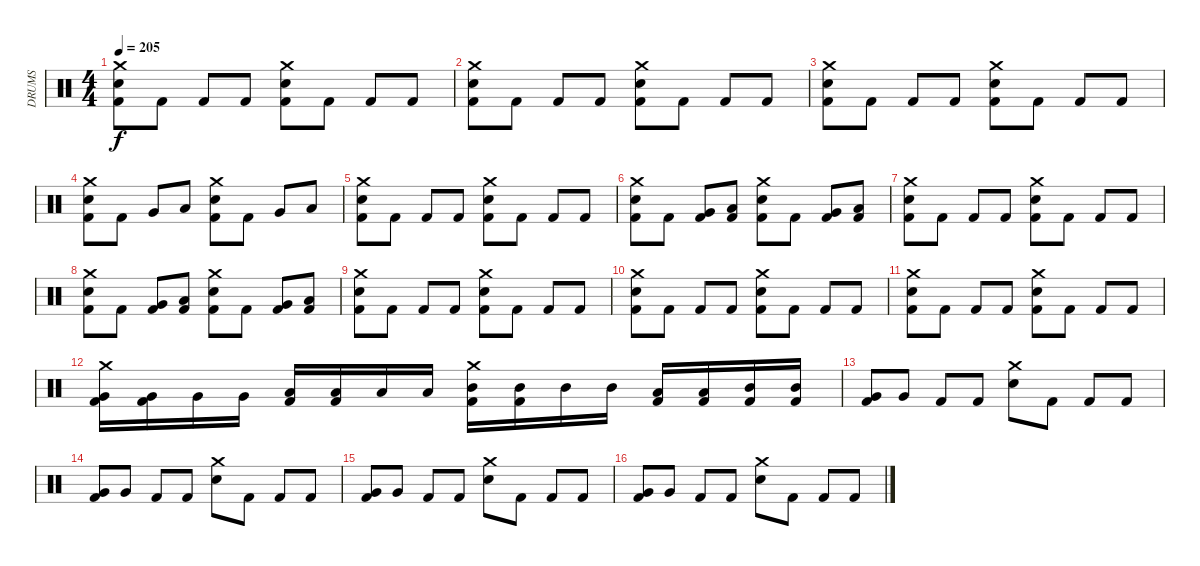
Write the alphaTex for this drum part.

\track ("DRUMS" "DRUMS") {instrument percussion}
\staff {score}
\articulation defaults
\ts (4 4)
\tempo 205
\clef neutral
\ks c
("Crash medium (hit)" "Snare (hit) 2" "Kick (hit) 2").8{dy f} "Kick (hit) 2".8 "Kick (hit) 2".8 "Kick (hit) 2".8 ("Crash medium (hit)" "Snare (hit) 2" "Kick (hit) 2").8 "Kick (hit) 2".8 "Kick (hit) 2".8 "Kick (hit) 2".8 |
("Crash medium (hit)" "Snare (hit) 2" "Kick (hit) 2").8 "Kick (hit) 2".8 "Kick (hit) 2".8 "Kick (hit) 2".8 ("Crash medium (hit)" "Snare (hit) 2" "Kick (hit) 2").8 "Kick (hit) 2".8 "Kick (hit) 2".8 "Kick (hit) 2".8 |
("Crash medium (hit)" "Snare (hit) 2" "Kick (hit) 2").8 "Kick (hit) 2".8 "Kick (hit) 2".8 "Kick (hit) 2".8 ("Crash medium (hit)" "Snare (hit) 2" "Kick (hit) 2").8 "Kick (hit) 2".8 "Kick (hit) 2".8 "Kick (hit) 2".8 |
("Crash medium (hit)" "Snare (hit) 2" "Kick (hit) 2").8 "Kick (hit) 2".8 "Very Low Tom (hit)".8 "Low Tom (hit)".8 ("Crash medium (hit)" "Snare (hit) 2" "Kick (hit) 2").8 "Kick (hit) 2".8 "Very Low Tom (hit)".8 "Low Tom (hit)".8 |
("Crash medium (hit)" "Snare (hit) 2" "Kick (hit) 2").8 "Kick (hit) 2".8 "Kick (hit) 2".8 "Kick (hit) 2".8 ("Crash medium (hit)" "Snare (hit) 2" "Kick (hit) 2").8 "Kick (hit) 2".8 "Kick (hit) 2".8 "Kick (hit) 2".8 |
("Crash medium (hit)" "Snare (hit) 2" "Kick (hit) 2").8 "Kick (hit) 2".8 ("Very Low Tom (hit)" "Kick (hit) 2").8 ("Low Tom (hit)" "Kick (hit) 2").8 ("Crash medium (hit)" "Snare (hit) 2" "Kick (hit) 2").8 "Kick (hit) 2".8 ("Very Low Tom (hit)" "Kick (hit) 2").8 ("Low Tom (hit)" "Kick (hit) 2").8 |
("Crash medium (hit)" "Snare (hit) 2" "Kick (hit) 2").8 "Kick (hit) 2".8 "Kick (hit) 2".8 "Kick (hit) 2".8 ("Crash medium (hit)" "Snare (hit) 2" "Kick (hit) 2").8 "Kick (hit) 2".8 "Kick (hit) 2".8 "Kick (hit) 2".8 |
("Crash medium (hit)" "Snare (hit) 2" "Kick (hit) 2").8 "Kick (hit) 2".8 ("Very Low Tom (hit)" "Kick (hit) 2").8 ("Low Tom (hit)" "Kick (hit) 2").8 ("Crash medium (hit)" "Snare (hit) 2" "Kick (hit) 2").8 "Kick (hit) 2".8 ("Very Low Tom (hit)" "Kick (hit) 2").8 ("Low Tom (hit)" "Kick (hit) 2").8 |
("Crash medium (hit)" "Snare (hit) 2" "Kick (hit) 2").8 "Kick (hit) 2".8 "Kick (hit) 2".8 "Kick (hit) 2".8 ("Crash medium (hit)" "Snare (hit) 2" "Kick (hit) 2").8 "Kick (hit) 2".8 "Kick (hit) 2".8 "Kick (hit) 2".8 |
("Crash medium (hit)" "Snare (hit) 2" "Kick (hit) 2").8 "Kick (hit) 2".8 "Kick (hit) 2".8 "Kick (hit) 2".8 ("Crash medium (hit)" "Snare (hit) 2" "Kick (hit) 2").8 "Kick (hit) 2".8 "Kick (hit) 2".8 "Kick (hit) 2".8 |
("Crash medium (hit)" "Snare (hit) 2" "Kick (hit) 2").8 "Kick (hit) 2".8 "Kick (hit) 2".8 "Kick (hit) 2".8 ("Crash medium (hit)" "Snare (hit) 2" "Kick (hit) 2").8 "Kick (hit) 2".8 "Kick (hit) 2".8 "Kick (hit) 2".8 |
("Crash medium (hit)" "Very Low Tom (hit)" "Kick (hit) 2").16 ("Very Low Tom (hit)" "Kick (hit) 2").16 "Very Low Tom (hit)".16 "Very Low Tom (hit)".16 ("Low Tom (hit)" "Kick (hit) 2").16 ("Low Tom (hit)" "Kick (hit) 2").16 "Low Tom (hit)".16 "Low Tom (hit)".16 ("Crash medium (hit)" "Mid Tom (hit)" "Kick (hit) 2").16 ("Mid Tom (hit)" "Kick (hit) 2").16 "Mid Tom (hit)".16 "Mid Tom (hit)".16 ("Low Tom (hit)" "Kick (hit) 2").16 ("Low Tom (hit)" "Kick (hit) 2").16 ("Mid Tom (hit)" "Kick (hit) 2").16 ("Mid Tom (hit)" "Kick (hit) 2").16 |
("Very Low Tom (hit)" "Kick (hit) 2").8 "Very Low Tom (hit)".8 "Kick (hit) 2".8 "Kick (hit) 2".8 ("Crash medium (hit)" "Snare (hit) 2").8 "Kick (hit) 2".8 "Kick (hit) 2".8 "Kick (hit) 2".8 |
("Very Low Tom (hit)" "Kick (hit) 2").8 "Very Low Tom (hit)".8 "Kick (hit) 2".8 "Kick (hit) 2".8 ("Crash medium (hit)" "Snare (hit) 2").8 "Kick (hit) 2".8 "Kick (hit) 2".8 "Kick (hit) 2".8 |
("Very Low Tom (hit)" "Kick (hit) 2").8 "Very Low Tom (hit)".8 "Kick (hit) 2".8 "Kick (hit) 2".8 ("Crash medium (hit)" "Snare (hit) 2").8 "Kick (hit) 2".8 "Kick (hit) 2".8 "Kick (hit) 2".8 |
("Very Low Tom (hit)" "Kick (hit) 2").8 "Very Low Tom (hit)".8 "Kick (hit) 2".8 "Kick (hit) 2".8 ("Crash medium (hit)" "Snare (hit) 2").8 "Kick (hit) 2".8 "Kick (hit) 2".8 "Kick (hit) 2".8
